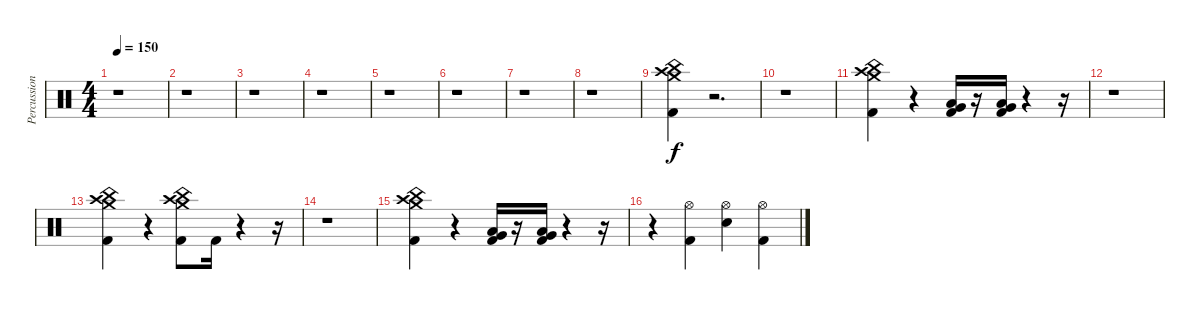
\track ("Percussion" "Percussion") {instrument percussion}
\staff {score}
\articulation defaults
\ts (4 4)
\tempo 150
\clef neutral
\ks c
r.1{dy f} |
r.1 |
r.1 |
r.1 |
r.1 |
r.1 |
r.1 |
r.1 |
("Kick (hit) 2" "Crash high (hit)" "China (hit)" "Crash medium (hit)").4 r.2{d} |
r.1 |
("Kick (hit) 2" "Crash high (hit)" "China (hit)" "Crash medium (hit)").4 r.4 ("Kick (hit) 2" "Very Low Tom (hit)" "Low Tom (hit)").16 r.16 ("Kick (hit) 2" "Low Floor Tom (hit)" "Very Low Tom (hit)").16 r.4 r.16 |
r.1 |
("Kick (hit) 2" "Crash high (hit)" "China (hit)" "Crash medium (hit)").4 r.4 ("Kick (hit) 2" "Crash high (hit)" "China (hit)" "Crash medium (hit)").8 "Kick (hit) 2".16 r.4 r.16 |
r.1 |
("Kick (hit) 2" "Crash high (hit)" "China (hit)" "Crash medium (hit)").4 r.4 ("Kick (hit) 2" "Very Low Tom (hit)" "Low Tom (hit)").16 r.16 ("Kick (hit) 2" "Very Low Tom (hit)" "Low Tom (hit)").16 r.4 r.16 |
r.4 ("Kick (hit) 2" "Hi-Hat (open)").4 ("Electric Snare (hit)" "Hi-Hat (open)").4 ("Kick (hit) 2" "Hi-Hat (open)").4
